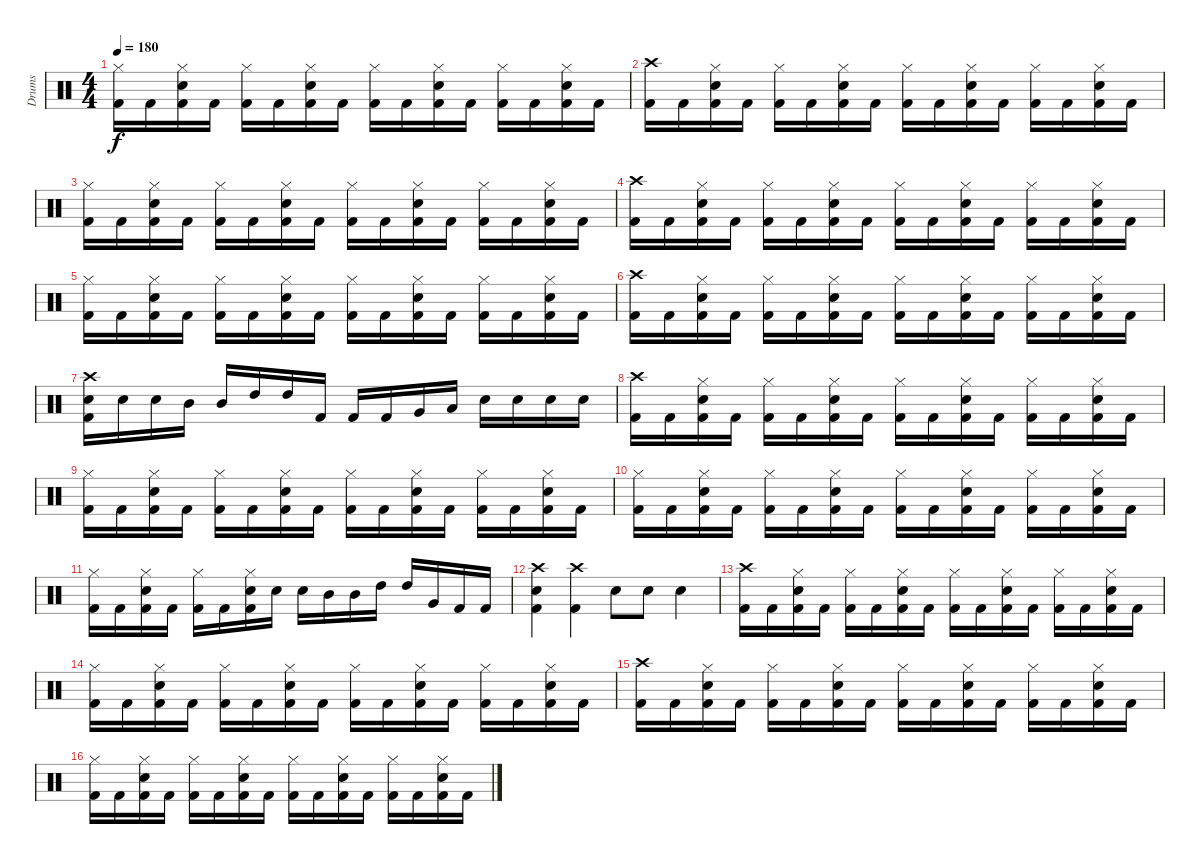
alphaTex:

\track ("Drums" "Drums") {instrument percussion}
\staff {score}
\articulation defaults
\ts (4 4)
\tempo 180
\clef neutral
\ks c
("Hi-Hat (closed)" "Kick (hit) 2").16{dy f} "Kick (hit) 2".16 ("Hi-Hat (closed)" "Electric Snare (hit)" "Kick (hit) 2").16 "Kick (hit) 2".16 ("Hi-Hat (closed)" "Kick (hit) 2").16 "Kick (hit) 2".16 ("Hi-Hat (closed)" "Electric Snare (hit)" "Kick (hit) 2").16 "Kick (hit) 2".16 ("Hi-Hat (closed)" "Kick (hit) 2").16 "Kick (hit) 2".16 ("Hi-Hat (closed)" "Electric Snare (hit)" "Kick (hit) 2").16 "Kick (hit) 2".16 ("Hi-Hat (closed)" "Kick (hit) 2").16 "Kick (hit) 2".16 ("Hi-Hat (closed)" "Electric Snare (hit)" "Kick (hit) 2").16 "Kick (hit) 2".16 |
("Crash high (hit)" "Kick (hit) 2").16 "Kick (hit) 2".16 ("Hi-Hat (closed)" "Electric Snare (hit)" "Kick (hit) 2").16 "Kick (hit) 2".16 ("Hi-Hat (closed)" "Kick (hit) 2").16 "Kick (hit) 2".16 ("Hi-Hat (closed)" "Electric Snare (hit)" "Kick (hit) 2").16 "Kick (hit) 2".16 ("Hi-Hat (closed)" "Kick (hit) 2").16 "Kick (hit) 2".16 ("Hi-Hat (closed)" "Electric Snare (hit)" "Kick (hit) 2").16 "Kick (hit) 2".16 ("Hi-Hat (closed)" "Kick (hit) 2").16 "Kick (hit) 2".16 ("Hi-Hat (closed)" "Electric Snare (hit)" "Kick (hit) 2").16 "Kick (hit) 2".16 |
("Hi-Hat (closed)" "Kick (hit) 2").16 "Kick (hit) 2".16 ("Hi-Hat (closed)" "Electric Snare (hit)" "Kick (hit) 2").16 "Kick (hit) 2".16 ("Hi-Hat (closed)" "Kick (hit) 2").16 "Kick (hit) 2".16 ("Hi-Hat (closed)" "Electric Snare (hit)" "Kick (hit) 2").16 "Kick (hit) 2".16 ("Hi-Hat (closed)" "Kick (hit) 2").16 "Kick (hit) 2".16 ("Hi-Hat (closed)" "Electric Snare (hit)" "Kick (hit) 2").16 "Kick (hit) 2".16 ("Hi-Hat (closed)" "Kick (hit) 2").16 "Kick (hit) 2".16 ("Hi-Hat (closed)" "Electric Snare (hit)" "Kick (hit) 2").16 "Kick (hit) 2".16 |
("Crash high (hit)" "Kick (hit) 2").16 "Kick (hit) 2".16 ("Hi-Hat (closed)" "Electric Snare (hit)" "Kick (hit) 2").16 "Kick (hit) 2".16 ("Hi-Hat (closed)" "Kick (hit) 2").16 "Kick (hit) 2".16 ("Hi-Hat (closed)" "Electric Snare (hit)" "Kick (hit) 2").16 "Kick (hit) 2".16 ("Hi-Hat (closed)" "Kick (hit) 2").16 "Kick (hit) 2".16 ("Hi-Hat (closed)" "Electric Snare (hit)" "Kick (hit) 2").16 "Kick (hit) 2".16 ("Hi-Hat (closed)" "Kick (hit) 2").16 "Kick (hit) 2".16 ("Hi-Hat (closed)" "Electric Snare (hit)" "Kick (hit) 2").16 "Kick (hit) 2".16 |
("Hi-Hat (closed)" "Kick (hit) 2").16 "Kick (hit) 2".16 ("Hi-Hat (closed)" "Electric Snare (hit)" "Kick (hit) 2").16 "Kick (hit) 2".16 ("Hi-Hat (closed)" "Kick (hit) 2").16 "Kick (hit) 2".16 ("Hi-Hat (closed)" "Electric Snare (hit)" "Kick (hit) 2").16 "Kick (hit) 2".16 ("Hi-Hat (closed)" "Kick (hit) 2").16 "Kick (hit) 2".16 ("Hi-Hat (closed)" "Electric Snare (hit)" "Kick (hit) 2").16 "Kick (hit) 2".16 ("Hi-Hat (closed)" "Kick (hit) 2").16 "Kick (hit) 2".16 ("Hi-Hat (closed)" "Electric Snare (hit)" "Kick (hit) 2").16 "Kick (hit) 2".16 |
("Crash high (hit)" "Kick (hit) 2").16 "Kick (hit) 2".16 ("Hi-Hat (closed)" "Electric Snare (hit)" "Kick (hit) 2").16 "Kick (hit) 2".16 ("Hi-Hat (closed)" "Kick (hit) 2").16 "Kick (hit) 2".16 ("Hi-Hat (closed)" "Electric Snare (hit)" "Kick (hit) 2").16 "Kick (hit) 2".16 ("Hi-Hat (closed)" "Kick (hit) 2").16 "Kick (hit) 2".16 ("Hi-Hat (closed)" "Electric Snare (hit)" "Kick (hit) 2").16 "Kick (hit) 2".16 ("Hi-Hat (closed)" "Kick (hit) 2").16 "Kick (hit) 2".16 ("Hi-Hat (closed)" "Electric Snare (hit)" "Kick (hit) 2").16 "Kick (hit) 2".16 |
("Crash high (hit)" "Electric Snare (hit)" "Kick (hit) 2").16 "Electric Snare (hit)".16 "Electric Snare (hit)".16 "Mid Tom (hit)".16 "Mid Tom (hit)".16 "High Tom (hit)".16 "High Tom (hit)".16 "Kick (hit) 2".16 "Kick (hit) 2".16 "Kick (hit) 2".16 "Very Low Tom (hit)".16 "Low Floor Tom (hit)".16 "Electric Snare (hit)".16 "Electric Snare (hit)".16 "Electric Snare (hit)".16 "Electric Snare (hit)".16 |
("Crash high (hit)" "Kick (hit) 2").16 "Kick (hit) 2".16 ("Hi-Hat (closed)" "Electric Snare (hit)" "Kick (hit) 2").16 "Kick (hit) 2".16 ("Hi-Hat (closed)" "Kick (hit) 2").16 "Kick (hit) 2".16 ("Hi-Hat (closed)" "Electric Snare (hit)" "Kick (hit) 2").16 "Kick (hit) 2".16 ("Hi-Hat (closed)" "Kick (hit) 2").16 "Kick (hit) 2".16 ("Hi-Hat (closed)" "Electric Snare (hit)" "Kick (hit) 2").16 "Kick (hit) 2".16 ("Hi-Hat (closed)" "Kick (hit) 2").16 "Kick (hit) 2".16 ("Hi-Hat (closed)" "Electric Snare (hit)" "Kick (hit) 2").16 "Kick (hit) 2".16 |
("Hi-Hat (closed)" "Kick (hit) 2").16 "Kick (hit) 2".16 ("Hi-Hat (closed)" "Electric Snare (hit)" "Kick (hit) 2").16 "Kick (hit) 2".16 ("Hi-Hat (closed)" "Kick (hit) 2").16 "Kick (hit) 2".16 ("Hi-Hat (closed)" "Electric Snare (hit)" "Kick (hit) 2").16 "Kick (hit) 2".16 ("Hi-Hat (closed)" "Kick (hit) 2").16 "Kick (hit) 2".16 ("Hi-Hat (closed)" "Electric Snare (hit)" "Kick (hit) 2").16 "Kick (hit) 2".16 ("Hi-Hat (closed)" "Kick (hit) 2").16 "Kick (hit) 2".16 ("Hi-Hat (closed)" "Electric Snare (hit)" "Kick (hit) 2").16 "Kick (hit) 2".16 |
("Hi-Hat (closed)" "Kick (hit) 2").16 "Kick (hit) 2".16 ("Hi-Hat (closed)" "Electric Snare (hit)" "Kick (hit) 2").16 "Kick (hit) 2".16 ("Hi-Hat (closed)" "Kick (hit) 2").16 "Kick (hit) 2".16 ("Hi-Hat (closed)" "Electric Snare (hit)" "Kick (hit) 2").16 "Kick (hit) 2".16 ("Hi-Hat (closed)" "Kick (hit) 2").16 "Kick (hit) 2".16 ("Hi-Hat (closed)" "Electric Snare (hit)" "Kick (hit) 2").16 "Kick (hit) 2".16 ("Hi-Hat (closed)" "Kick (hit) 2").16 "Kick (hit) 2".16 ("Hi-Hat (closed)" "Electric Snare (hit)" "Kick (hit) 2").16 "Kick (hit) 2".16 |
("Hi-Hat (closed)" "Kick (hit) 2").16 "Kick (hit) 2".16 ("Hi-Hat (closed)" "Electric Snare (hit)" "Kick (hit) 2").16 "Kick (hit) 2".16 ("Hi-Hat (closed)" "Kick (hit) 2").16 "Kick (hit) 2".16 ("Hi-Hat (closed)" "Electric Snare (hit)" "Kick (hit) 2").16 "Electric Snare (hit)".16 "Electric Snare (hit)".16 "Mid Tom (hit)".16 "Mid Tom (hit)".16 "High Tom (hit)".16 "High Tom (hit)".16 "Very Low Tom (hit)".16 "Kick (hit) 2".16 "Kick (hit) 2".16 |
("Crash high (hit)" "Electric Snare (hit)" "Kick (hit) 2").4 ("Crash high (hit)" "Kick (hit) 2").4 "Electric Snare (hit)".8 "Electric Snare (hit)".8 "Electric Snare (hit)".4 |
("Crash high (hit)" "Kick (hit) 2").16 "Kick (hit) 2".16 ("Hi-Hat (closed)" "Electric Snare (hit)" "Kick (hit) 2").16 "Kick (hit) 2".16 ("Hi-Hat (closed)" "Kick (hit) 2").16 "Kick (hit) 2".16 ("Hi-Hat (closed)" "Electric Snare (hit)" "Kick (hit) 2").16 "Kick (hit) 2".16 ("Hi-Hat (closed)" "Kick (hit) 2").16 "Kick (hit) 2".16 ("Hi-Hat (closed)" "Electric Snare (hit)" "Kick (hit) 2").16 "Kick (hit) 2".16 ("Hi-Hat (closed)" "Kick (hit) 2").16 "Kick (hit) 2".16 ("Hi-Hat (closed)" "Electric Snare (hit)" "Kick (hit) 2").16 "Kick (hit) 2".16 |
("Hi-Hat (closed)" "Kick (hit) 2").16 "Kick (hit) 2".16 ("Hi-Hat (closed)" "Electric Snare (hit)" "Kick (hit) 2").16 "Kick (hit) 2".16 ("Hi-Hat (closed)" "Kick (hit) 2").16 "Kick (hit) 2".16 ("Hi-Hat (closed)" "Electric Snare (hit)" "Kick (hit) 2").16 "Kick (hit) 2".16 ("Hi-Hat (closed)" "Kick (hit) 2").16 "Kick (hit) 2".16 ("Hi-Hat (closed)" "Electric Snare (hit)" "Kick (hit) 2").16 "Kick (hit) 2".16 ("Hi-Hat (closed)" "Kick (hit) 2").16 "Kick (hit) 2".16 ("Hi-Hat (closed)" "Electric Snare (hit)" "Kick (hit) 2").16 "Kick (hit) 2".16 |
("Crash high (hit)" "Kick (hit) 2").16 "Kick (hit) 2".16 ("Hi-Hat (closed)" "Electric Snare (hit)" "Kick (hit) 2").16 "Kick (hit) 2".16 ("Hi-Hat (closed)" "Kick (hit) 2").16 "Kick (hit) 2".16 ("Hi-Hat (closed)" "Electric Snare (hit)" "Kick (hit) 2").16 "Kick (hit) 2".16 ("Hi-Hat (closed)" "Kick (hit) 2").16 "Kick (hit) 2".16 ("Hi-Hat (closed)" "Electric Snare (hit)" "Kick (hit) 2").16 "Kick (hit) 2".16 ("Hi-Hat (closed)" "Kick (hit) 2").16 "Kick (hit) 2".16 ("Hi-Hat (closed)" "Electric Snare (hit)" "Kick (hit) 2").16 "Kick (hit) 2".16 |
("Hi-Hat (closed)" "Kick (hit) 2").16 "Kick (hit) 2".16 ("Hi-Hat (closed)" "Electric Snare (hit)" "Kick (hit) 2").16 "Kick (hit) 2".16 ("Hi-Hat (closed)" "Kick (hit) 2").16 "Kick (hit) 2".16 ("Hi-Hat (closed)" "Electric Snare (hit)" "Kick (hit) 2").16 "Kick (hit) 2".16 ("Hi-Hat (closed)" "Kick (hit) 2").16 "Kick (hit) 2".16 ("Hi-Hat (closed)" "Electric Snare (hit)" "Kick (hit) 2").16 "Kick (hit) 2".16 ("Hi-Hat (closed)" "Kick (hit) 2").16 "Kick (hit) 2".16 ("Hi-Hat (closed)" "Electric Snare (hit)" "Kick (hit) 2").16 "Kick (hit) 2".16
